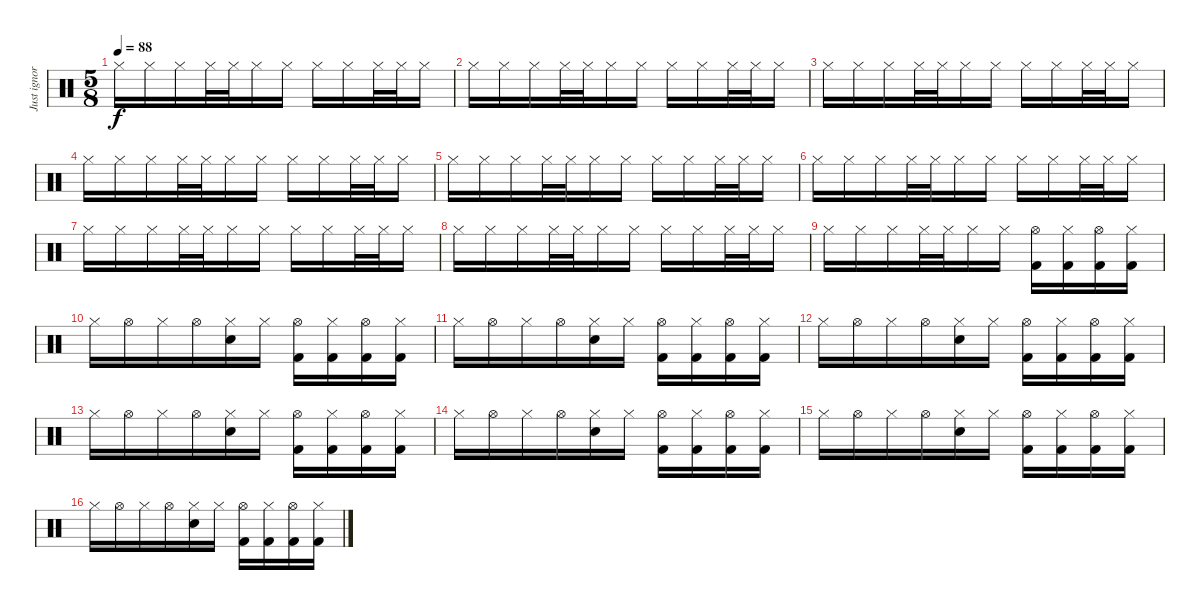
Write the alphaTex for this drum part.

\track ("Just ignore this track" "Just ignor") {instrument percussion}
\staff {score}
\articulation defaults
\ts (5 8)
\tempo 88
\clef neutral
\ks c "Hi-Hat (closed)".16{dy f} "Hi-Hat (closed)".16 "Hi-Hat (closed)".16 "Hi-Hat (closed)".32 "Hi-Hat (closed)".32 "Hi-Hat (closed)".16 "Hi-Hat (closed)".16 "Hi-Hat (closed)".16 "Hi-Hat (closed)".16 "Hi-Hat (closed)".32 "Hi-Hat (closed)".32 "Hi-Hat (closed)".16
|
"Hi-Hat (closed)".16 "Hi-Hat (closed)".16 "Hi-Hat (closed)".16 "Hi-Hat (closed)".32 "Hi-Hat (closed)".32 "Hi-Hat (closed)".16 "Hi-Hat (closed)".16 "Hi-Hat (closed)".16 "Hi-Hat (closed)".16 "Hi-Hat (closed)".32 "Hi-Hat (closed)".32 "Hi-Hat (closed)".16 |
"Hi-Hat (closed)".16 "Hi-Hat (closed)".16 "Hi-Hat (closed)".16 "Hi-Hat (closed)".32 "Hi-Hat (closed)".32 "Hi-Hat (closed)".16 "Hi-Hat (closed)".16 "Hi-Hat (closed)".16 "Hi-Hat (closed)".16 "Hi-Hat (closed)".32 "Hi-Hat (closed)".32 "Hi-Hat (closed)".16 |
"Hi-Hat (closed)".16 "Hi-Hat (closed)".16 "Hi-Hat (closed)".16 "Hi-Hat (closed)".32 "Hi-Hat (closed)".32 "Hi-Hat (closed)".16 "Hi-Hat (closed)".16 "Hi-Hat (closed)".16 "Hi-Hat (closed)".16 "Hi-Hat (closed)".32 "Hi-Hat (closed)".32 "Hi-Hat (closed)".16 |
"Hi-Hat (closed)".16 "Hi-Hat (closed)".16 "Hi-Hat (closed)".16 "Hi-Hat (closed)".32 "Hi-Hat (closed)".32 "Hi-Hat (closed)".16 "Hi-Hat (closed)".16 "Hi-Hat (closed)".16 "Hi-Hat (closed)".16 "Hi-Hat (closed)".32 "Hi-Hat (closed)".32 "Hi-Hat (closed)".16 |
"Hi-Hat (closed)".16 "Hi-Hat (closed)".16 "Hi-Hat (closed)".16 "Hi-Hat (closed)".32 "Hi-Hat (closed)".32 "Hi-Hat (closed)".16 "Hi-Hat (closed)".16 "Hi-Hat (closed)".16 "Hi-Hat (closed)".16 "Hi-Hat (closed)".32 "Hi-Hat (closed)".32 "Hi-Hat (closed)".16 |
"Hi-Hat (closed)".16 "Hi-Hat (closed)".16 "Hi-Hat (closed)".16 "Hi-Hat (closed)".32 "Hi-Hat (closed)".32 "Hi-Hat (closed)".16 "Hi-Hat (closed)".16 "Hi-Hat (closed)".16 "Hi-Hat (closed)".16 "Hi-Hat (closed)".32 "Hi-Hat (closed)".32 "Hi-Hat (closed)".16 |
"Hi-Hat (closed)".16 "Hi-Hat (closed)".16 "Hi-Hat (closed)".16 "Hi-Hat (closed)".32 "Hi-Hat (closed)".32 "Hi-Hat (closed)".16 "Hi-Hat (closed)".16 "Hi-Hat (closed)".16 "Hi-Hat (closed)".16 "Hi-Hat (closed)".32 "Hi-Hat (closed)".32 "Hi-Hat (closed)".16 |
"Hi-Hat (closed)".16 "Hi-Hat (closed)".16 "Hi-Hat (closed)".16 "Hi-Hat (closed)".32 "Hi-Hat (closed)".32 "Hi-Hat (closed)".16 "Hi-Hat (closed)".16 ("Hi-Hat (open)" "Kick (hit) 2").16 ("Hi-Hat (closed)" "Kick (hit) 2").16 ("Hi-Hat (open)" "Kick (hit) 2").16 ("Hi-Hat (closed)" "Kick (hit) 2").16 |
"Hi-Hat (closed)".16 "Hi-Hat (open)".16 "Hi-Hat (closed)".16 "Hi-Hat (open)".16 ("Hi-Hat (closed)" "Electric Snare (hit)").16 "Hi-Hat (closed)".16 ("Hi-Hat (open)" "Kick (hit) 2").16 ("Hi-Hat (closed)" "Kick (hit) 2").16 ("Hi-Hat (open)" "Kick (hit) 2").16 ("Hi-Hat (closed)" "Kick (hit) 2").16 |
"Hi-Hat (closed)".16 "Hi-Hat (open)".16 "Hi-Hat (closed)".16 "Hi-Hat (open)".16 ("Hi-Hat (closed)" "Electric Snare (hit)").16 "Hi-Hat (closed)".16 ("Hi-Hat (open)" "Kick (hit) 2").16 ("Hi-Hat (closed)" "Kick (hit) 2").16 ("Hi-Hat (open)" "Kick (hit) 2").16 ("Hi-Hat (closed)" "Kick (hit) 2").16 |
"Hi-Hat (closed)".16 "Hi-Hat (open)".16 "Hi-Hat (closed)".16 "Hi-Hat (open)".16 ("Hi-Hat (closed)" "Electric Snare (hit)").16 "Hi-Hat (closed)".16 ("Hi-Hat (open)" "Kick (hit) 2").16 ("Hi-Hat (closed)" "Kick (hit) 2").16 ("Hi-Hat (open)" "Kick (hit) 2").16 ("Hi-Hat (closed)" "Kick (hit) 2").16 |
"Hi-Hat (closed)".16 "Hi-Hat (open)".16 "Hi-Hat (closed)".16 "Hi-Hat (open)".16 ("Hi-Hat (closed)" "Electric Snare (hit)").16 "Hi-Hat (closed)".16 ("Hi-Hat (open)" "Kick (hit) 2").16 ("Hi-Hat (closed)" "Kick (hit) 2").16 ("Hi-Hat (open)" "Kick (hit) 2").16 ("Hi-Hat (closed)" "Kick (hit) 2").16 |
"Hi-Hat (closed)".16 "Hi-Hat (open)".16 "Hi-Hat (closed)".16 "Hi-Hat (open)".16 ("Hi-Hat (closed)" "Electric Snare (hit)").16 "Hi-Hat (closed)".16 ("Hi-Hat (open)" "Kick (hit) 2").16 ("Hi-Hat (closed)" "Kick (hit) 2").16 ("Hi-Hat (open)" "Kick (hit) 2").16 ("Hi-Hat (closed)" "Kick (hit) 2").16 |
"Hi-Hat (closed)".16 "Hi-Hat (open)".16 "Hi-Hat (closed)".16 "Hi-Hat (open)".16 ("Hi-Hat (closed)" "Electric Snare (hit)").16 "Hi-Hat (closed)".16 ("Hi-Hat (open)" "Kick (hit) 2").16 ("Hi-Hat (closed)" "Kick (hit) 2").16 ("Hi-Hat (open)" "Kick (hit) 2").16 ("Hi-Hat (closed)" "Kick (hit) 2").16 |
"Hi-Hat (closed)".16 "Hi-Hat (open)".16 "Hi-Hat (closed)".16 "Hi-Hat (open)".16 ("Hi-Hat (closed)" "Electric Snare (hit)").16 "Hi-Hat (closed)".16 ("Hi-Hat (open)" "Kick (hit) 2").16 ("Hi-Hat (closed)" "Kick (hit) 2").16 ("Hi-Hat (open)" "Kick (hit) 2").16 ("Hi-Hat (closed)" "Kick (hit) 2").16
